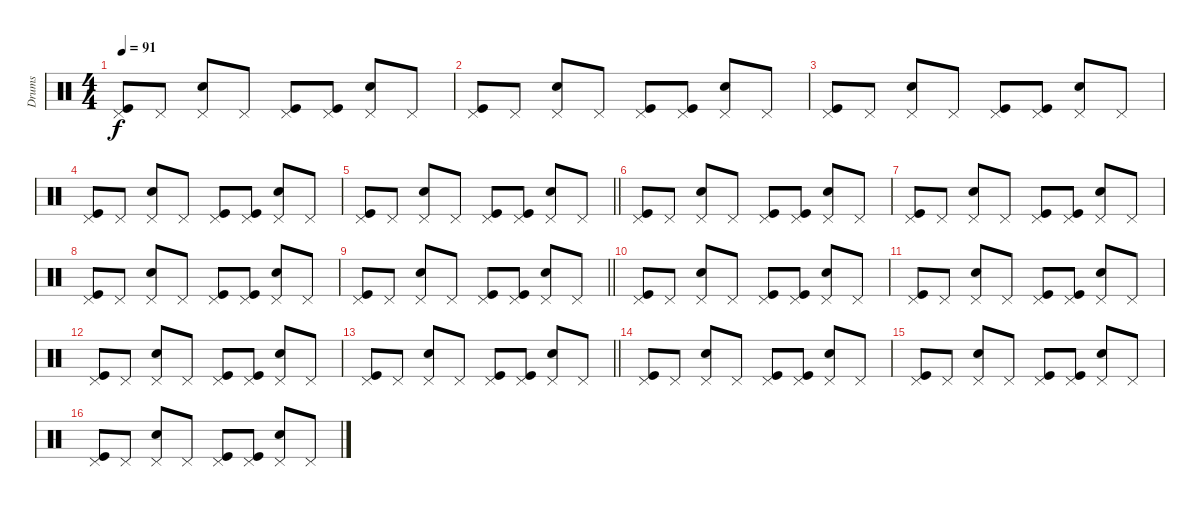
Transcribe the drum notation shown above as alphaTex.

\track ("Drums" "Drums") {instrument percussion}
\staff {score}
\articulation defaults
\ts (4 4)
\tempo 91
\clef neutral
\ks c
("Kick (hit)" "Pedal Hi-Hat (hit)").8{dy f} "Pedal Hi-Hat (hit)".8 ("Snare (hit) 2" "Pedal Hi-Hat (hit)").8 "Pedal Hi-Hat (hit)".8 ("Kick (hit)" "Pedal Hi-Hat (hit)").8 ("Kick (hit)" "Pedal Hi-Hat (hit)").8 ("Snare (hit) 2" "Pedal Hi-Hat (hit)").8 "Pedal Hi-Hat (hit)".8 |
("Kick (hit)" "Pedal Hi-Hat (hit)").8 "Pedal Hi-Hat (hit)".8 ("Snare (hit) 2" "Pedal Hi-Hat (hit)").8 "Pedal Hi-Hat (hit)".8 ("Kick (hit)" "Pedal Hi-Hat (hit)").8 ("Kick (hit)" "Pedal Hi-Hat (hit)").8 ("Snare (hit) 2" "Pedal Hi-Hat (hit)").8 "Pedal Hi-Hat (hit)".8 |
("Kick (hit)" "Pedal Hi-Hat (hit)").8 "Pedal Hi-Hat (hit)".8 ("Snare (hit) 2" "Pedal Hi-Hat (hit)").8 "Pedal Hi-Hat (hit)".8 ("Kick (hit)" "Pedal Hi-Hat (hit)").8 ("Kick (hit)" "Pedal Hi-Hat (hit)").8 ("Snare (hit) 2" "Pedal Hi-Hat (hit)").8 "Pedal Hi-Hat (hit)".8 |
("Kick (hit)" "Pedal Hi-Hat (hit)").8 "Pedal Hi-Hat (hit)".8 ("Snare (hit) 2" "Pedal Hi-Hat (hit)").8 "Pedal Hi-Hat (hit)".8 ("Kick (hit)" "Pedal Hi-Hat (hit)").8 ("Kick (hit)" "Pedal Hi-Hat (hit)").8 ("Snare (hit) 2" "Pedal Hi-Hat (hit)").8 "Pedal Hi-Hat (hit)".8 |
\barLineRight lightlight
("Kick (hit)" "Pedal Hi-Hat (hit)").8 "Pedal Hi-Hat (hit)".8 ("Snare (hit) 2" "Pedal Hi-Hat (hit)").8 "Pedal Hi-Hat (hit)".8 ("Kick (hit)" "Pedal Hi-Hat (hit)").8 ("Kick (hit)" "Pedal Hi-Hat (hit)").8 ("Snare (hit) 2" "Pedal Hi-Hat (hit)").8 "Pedal Hi-Hat (hit)".8 |
("Kick (hit)" "Pedal Hi-Hat (hit)").8 "Pedal Hi-Hat (hit)".8 ("Snare (hit) 2" "Pedal Hi-Hat (hit)").8 "Pedal Hi-Hat (hit)".8 ("Kick (hit)" "Pedal Hi-Hat (hit)").8 ("Kick (hit)" "Pedal Hi-Hat (hit)").8 ("Snare (hit) 2" "Pedal Hi-Hat (hit)").8 "Pedal Hi-Hat (hit)".8 |
("Kick (hit)" "Pedal Hi-Hat (hit)").8 "Pedal Hi-Hat (hit)".8 ("Snare (hit) 2" "Pedal Hi-Hat (hit)").8 "Pedal Hi-Hat (hit)".8 ("Kick (hit)" "Pedal Hi-Hat (hit)").8 ("Kick (hit)" "Pedal Hi-Hat (hit)").8 ("Snare (hit) 2" "Pedal Hi-Hat (hit)").8 "Pedal Hi-Hat (hit)".8 |
("Kick (hit)" "Pedal Hi-Hat (hit)").8 "Pedal Hi-Hat (hit)".8 ("Snare (hit) 2" "Pedal Hi-Hat (hit)").8 "Pedal Hi-Hat (hit)".8 ("Kick (hit)" "Pedal Hi-Hat (hit)").8 ("Kick (hit)" "Pedal Hi-Hat (hit)").8 ("Snare (hit) 2" "Pedal Hi-Hat (hit)").8 "Pedal Hi-Hat (hit)".8 |
\barLineRight lightlight
("Kick (hit)" "Pedal Hi-Hat (hit)").8 "Pedal Hi-Hat (hit)".8 ("Snare (hit) 2" "Pedal Hi-Hat (hit)").8 "Pedal Hi-Hat (hit)".8 ("Kick (hit)" "Pedal Hi-Hat (hit)").8 ("Kick (hit)" "Pedal Hi-Hat (hit)").8 ("Snare (hit) 2" "Pedal Hi-Hat (hit)").8 "Pedal Hi-Hat (hit)".8 |
("Kick (hit)" "Pedal Hi-Hat (hit)").8 "Pedal Hi-Hat (hit)".8 ("Snare (hit) 2" "Pedal Hi-Hat (hit)").8 "Pedal Hi-Hat (hit)".8 ("Kick (hit)" "Pedal Hi-Hat (hit)").8 ("Kick (hit)" "Pedal Hi-Hat (hit)").8 ("Snare (hit) 2" "Pedal Hi-Hat (hit)").8 "Pedal Hi-Hat (hit)".8 |
("Kick (hit)" "Pedal Hi-Hat (hit)").8 "Pedal Hi-Hat (hit)".8 ("Snare (hit) 2" "Pedal Hi-Hat (hit)").8 "Pedal Hi-Hat (hit)".8 ("Kick (hit)" "Pedal Hi-Hat (hit)").8 ("Kick (hit)" "Pedal Hi-Hat (hit)").8 ("Snare (hit) 2" "Pedal Hi-Hat (hit)").8 "Pedal Hi-Hat (hit)".8 |
("Kick (hit)" "Pedal Hi-Hat (hit)").8 "Pedal Hi-Hat (hit)".8 ("Snare (hit) 2" "Pedal Hi-Hat (hit)").8 "Pedal Hi-Hat (hit)".8 ("Kick (hit)" "Pedal Hi-Hat (hit)").8 ("Kick (hit)" "Pedal Hi-Hat (hit)").8 ("Snare (hit) 2" "Pedal Hi-Hat (hit)").8 "Pedal Hi-Hat (hit)".8 |
\barLineRight lightlight
("Kick (hit)" "Pedal Hi-Hat (hit)").8 "Pedal Hi-Hat (hit)".8 ("Snare (hit) 2" "Pedal Hi-Hat (hit)").8 "Pedal Hi-Hat (hit)".8 ("Kick (hit)" "Pedal Hi-Hat (hit)").8 ("Kick (hit)" "Pedal Hi-Hat (hit)").8 ("Snare (hit) 2" "Pedal Hi-Hat (hit)").8 "Pedal Hi-Hat (hit)".8 |
("Kick (hit)" "Pedal Hi-Hat (hit)").8 "Pedal Hi-Hat (hit)".8 ("Snare (hit) 2" "Pedal Hi-Hat (hit)").8 "Pedal Hi-Hat (hit)".8 ("Kick (hit)" "Pedal Hi-Hat (hit)").8 ("Kick (hit)" "Pedal Hi-Hat (hit)").8 ("Snare (hit) 2" "Pedal Hi-Hat (hit)").8 "Pedal Hi-Hat (hit)".8 |
("Kick (hit)" "Pedal Hi-Hat (hit)").8 "Pedal Hi-Hat (hit)".8 ("Snare (hit) 2" "Pedal Hi-Hat (hit)").8 "Pedal Hi-Hat (hit)".8 ("Kick (hit)" "Pedal Hi-Hat (hit)").8 ("Kick (hit)" "Pedal Hi-Hat (hit)").8 ("Snare (hit) 2" "Pedal Hi-Hat (hit)").8 "Pedal Hi-Hat (hit)".8 |
("Kick (hit)" "Pedal Hi-Hat (hit)").8 "Pedal Hi-Hat (hit)".8 ("Snare (hit) 2" "Pedal Hi-Hat (hit)").8 "Pedal Hi-Hat (hit)".8 ("Kick (hit)" "Pedal Hi-Hat (hit)").8 ("Kick (hit)" "Pedal Hi-Hat (hit)").8 ("Snare (hit) 2" "Pedal Hi-Hat (hit)").8 "Pedal Hi-Hat (hit)".8
